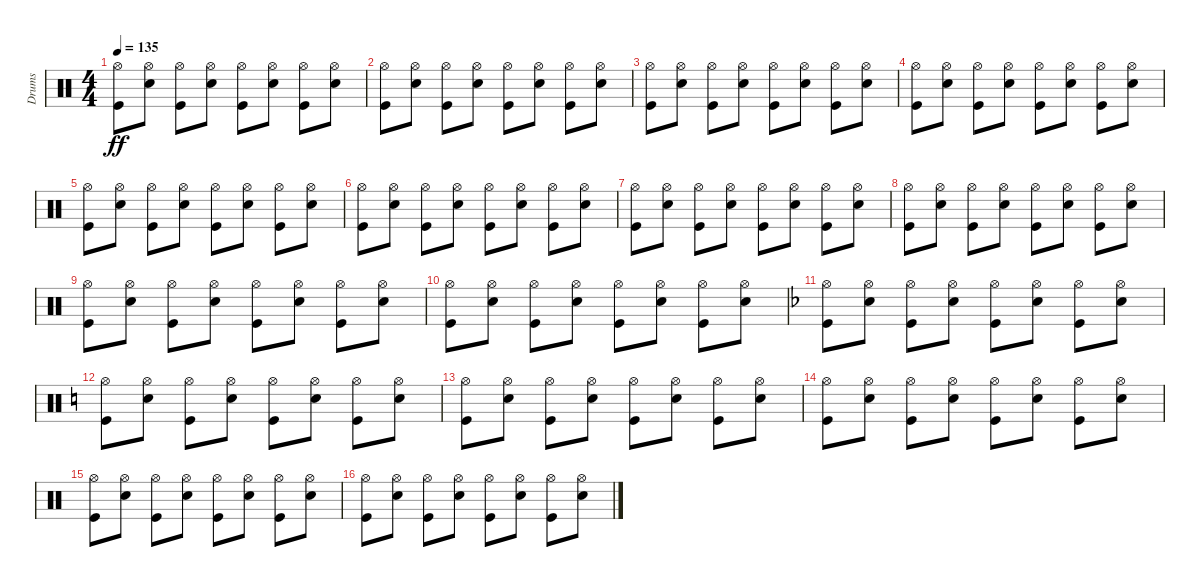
\track ("Drums" "Drums") {instrument percussion}
\staff {score}
\articulation defaults
\ts (4 4)
\tempo 135
\clef neutral
\ks c
("Kick (hit)" "Hi-Hat (open)").8{dy ff} ("Electric Snare (hit)" "Hi-Hat (open)").8 ("Kick (hit)" "Hi-Hat (open)").8 ("Electric Snare (hit)" "Hi-Hat (open)").8 ("Kick (hit)" "Hi-Hat (open)").8 ("Electric Snare (hit)" "Hi-Hat (open)").8 ("Kick (hit)" "Hi-Hat (open)").8 ("Electric Snare (hit)" "Hi-Hat (open)").8 |
("Kick (hit)" "Hi-Hat (open)").8 ("Electric Snare (hit)" "Hi-Hat (open)").8 ("Kick (hit)" "Hi-Hat (open)").8 ("Electric Snare (hit)" "Hi-Hat (open)").8 ("Kick (hit)" "Hi-Hat (open)").8 ("Electric Snare (hit)" "Hi-Hat (open)").8 ("Kick (hit)" "Hi-Hat (open)").8 ("Electric Snare (hit)" "Hi-Hat (open)").8 |
("Kick (hit)" "Hi-Hat (open)").8 ("Electric Snare (hit)" "Hi-Hat (open)").8 ("Kick (hit)" "Hi-Hat (open)").8 ("Electric Snare (hit)" "Hi-Hat (open)").8 ("Kick (hit)" "Hi-Hat (open)").8 ("Electric Snare (hit)" "Hi-Hat (open)").8 ("Kick (hit)" "Hi-Hat (open)").8 ("Electric Snare (hit)" "Hi-Hat (open)").8 |
("Kick (hit)" "Hi-Hat (open)").8 ("Electric Snare (hit)" "Hi-Hat (open)").8 ("Kick (hit)" "Hi-Hat (open)").8 ("Electric Snare (hit)" "Hi-Hat (open)").8 ("Kick (hit)" "Hi-Hat (open)").8 ("Electric Snare (hit)" "Hi-Hat (open)").8 ("Kick (hit)" "Hi-Hat (open)").8 ("Electric Snare (hit)" "Hi-Hat (open)").8 |
("Kick (hit)" "Hi-Hat (open)").8 ("Electric Snare (hit)" "Hi-Hat (open)").8 ("Kick (hit)" "Hi-Hat (open)").8 ("Electric Snare (hit)" "Hi-Hat (open)").8 ("Kick (hit)" "Hi-Hat (open)").8 ("Electric Snare (hit)" "Hi-Hat (open)").8 ("Kick (hit)" "Hi-Hat (open)").8 ("Electric Snare (hit)" "Hi-Hat (open)").8 |
("Kick (hit)" "Hi-Hat (open)").8 ("Electric Snare (hit)" "Hi-Hat (open)").8 ("Kick (hit)" "Hi-Hat (open)").8 ("Electric Snare (hit)" "Hi-Hat (open)").8 ("Kick (hit)" "Hi-Hat (open)").8 ("Electric Snare (hit)" "Hi-Hat (open)").8 ("Kick (hit)" "Hi-Hat (open)").8 ("Electric Snare (hit)" "Hi-Hat (open)").8 |
("Kick (hit)" "Hi-Hat (open)").8 ("Electric Snare (hit)" "Hi-Hat (open)").8 ("Kick (hit)" "Hi-Hat (open)").8 ("Electric Snare (hit)" "Hi-Hat (open)").8 ("Kick (hit)" "Hi-Hat (open)").8 ("Electric Snare (hit)" "Hi-Hat (open)").8 ("Kick (hit)" "Hi-Hat (open)").8 ("Electric Snare (hit)" "Hi-Hat (open)").8 |
("Kick (hit)" "Hi-Hat (open)").8 ("Electric Snare (hit)" "Hi-Hat (open)").8 ("Kick (hit)" "Hi-Hat (open)").8 ("Electric Snare (hit)" "Hi-Hat (open)").8 ("Kick (hit)" "Hi-Hat (open)").8 ("Electric Snare (hit)" "Hi-Hat (open)").8 ("Kick (hit)" "Hi-Hat (open)").8 ("Electric Snare (hit)" "Hi-Hat (open)").8 |
("Kick (hit)" "Hi-Hat (open)").8 ("Electric Snare (hit)" "Hi-Hat (open)").8 ("Kick (hit)" "Hi-Hat (open)").8 ("Electric Snare (hit)" "Hi-Hat (open)").8 ("Kick (hit)" "Hi-Hat (open)").8 ("Electric Snare (hit)" "Hi-Hat (open)").8 ("Kick (hit)" "Hi-Hat (open)").8 ("Electric Snare (hit)" "Hi-Hat (open)").8 |
("Kick (hit)" "Hi-Hat (open)").8 ("Electric Snare (hit)" "Hi-Hat (open)").8 ("Kick (hit)" "Hi-Hat (open)").8 ("Electric Snare (hit)" "Hi-Hat (open)").8 ("Kick (hit)" "Hi-Hat (open)").8 ("Electric Snare (hit)" "Hi-Hat (open)").8 ("Kick (hit)" "Hi-Hat (open)").8 ("Electric Snare (hit)" "Hi-Hat (open)").8 |
\ks f
("Kick (hit)" "Hi-Hat (open)").8 ("Electric Snare (hit)" "Hi-Hat (open)").8 ("Kick (hit)" "Hi-Hat (open)").8 ("Electric Snare (hit)" "Hi-Hat (open)").8 ("Kick (hit)" "Hi-Hat (open)").8 ("Electric Snare (hit)" "Hi-Hat (open)").8 ("Kick (hit)" "Hi-Hat (open)").8 ("Electric Snare (hit)" "Hi-Hat (open)").8 |
\ks c
("Kick (hit)" "Hi-Hat (open)").8 ("Electric Snare (hit)" "Hi-Hat (open)").8 ("Kick (hit)" "Hi-Hat (open)").8 ("Electric Snare (hit)" "Hi-Hat (open)").8 ("Kick (hit)" "Hi-Hat (open)").8 ("Electric Snare (hit)" "Hi-Hat (open)").8 ("Kick (hit)" "Hi-Hat (open)").8 ("Electric Snare (hit)" "Hi-Hat (open)").8 |
("Kick (hit)" "Hi-Hat (open)").8 ("Electric Snare (hit)" "Hi-Hat (open)").8 ("Kick (hit)" "Hi-Hat (open)").8 ("Electric Snare (hit)" "Hi-Hat (open)").8 ("Kick (hit)" "Hi-Hat (open)").8 ("Electric Snare (hit)" "Hi-Hat (open)").8 ("Kick (hit)" "Hi-Hat (open)").8 ("Electric Snare (hit)" "Hi-Hat (open)").8 |
("Kick (hit)" "Hi-Hat (open)").8 ("Electric Snare (hit)" "Hi-Hat (open)").8 ("Kick (hit)" "Hi-Hat (open)").8 ("Electric Snare (hit)" "Hi-Hat (open)").8 ("Kick (hit)" "Hi-Hat (open)").8 ("Electric Snare (hit)" "Hi-Hat (open)").8 ("Kick (hit)" "Hi-Hat (open)").8 ("Electric Snare (hit)" "Hi-Hat (open)").8 |
("Kick (hit)" "Hi-Hat (open)").8 ("Electric Snare (hit)" "Hi-Hat (open)").8 ("Kick (hit)" "Hi-Hat (open)").8 ("Electric Snare (hit)" "Hi-Hat (open)").8 ("Kick (hit)" "Hi-Hat (open)").8 ("Electric Snare (hit)" "Hi-Hat (open)").8 ("Kick (hit)" "Hi-Hat (open)").8 ("Electric Snare (hit)" "Hi-Hat (open)").8 |
("Kick (hit)" "Hi-Hat (open)").8 ("Electric Snare (hit)" "Hi-Hat (open)").8 ("Kick (hit)" "Hi-Hat (open)").8 ("Electric Snare (hit)" "Hi-Hat (open)").8 ("Kick (hit)" "Hi-Hat (open)").8 ("Electric Snare (hit)" "Hi-Hat (open)").8 ("Kick (hit)" "Hi-Hat (open)").8 ("Electric Snare (hit)" "Hi-Hat (open)").8
